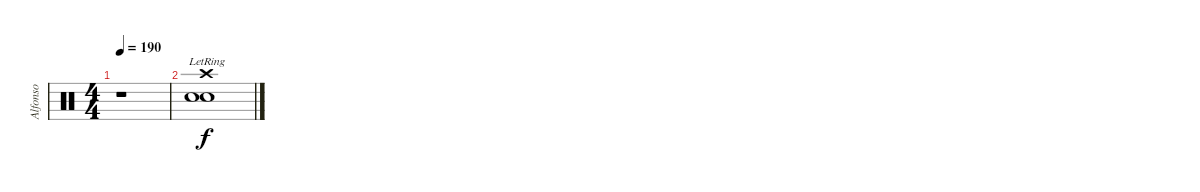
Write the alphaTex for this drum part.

\track ("Alfonso" "Alfonso") {instrument percussion}
\staff {score}
\articulation defaults
\ts (4 4)
\tempo 190
\clef neutral
\ks c
r.1{dy f} |
("Crash high (hit)"{lr} "Electric Snare (hit)"{lr} "Snare (hit) 2"{lr}).1
